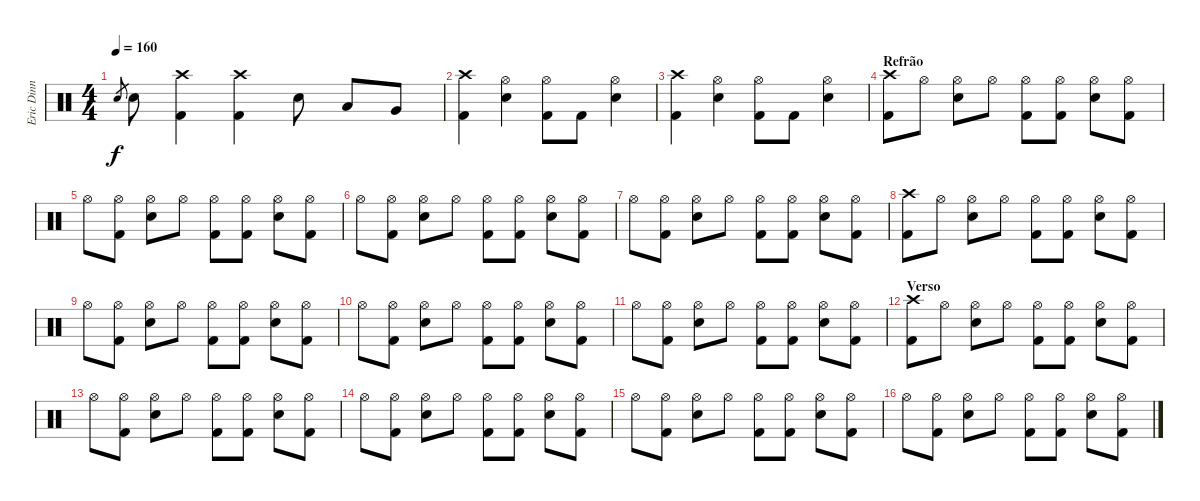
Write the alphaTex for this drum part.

\track ("Eric Dinn" "Eric Dinn") {instrument percussion}
\staff {score}
\articulation defaults
\ts (4 4)
\tempo 160
\clef neutral
\ks c "Snare (hit) 2".8{gr dy f} "Snare (hit) 2".8
("Crash high (hit)" "Kick (hit) 2").4 ("Crash high (hit)" "Kick (hit) 2").4 "Snare (hit) 2".8 "Low Tom (hit)".8 "Very Low Tom (hit)".8 |
("Crash high (hit)" "Kick (hit) 2").4 ("Hi-Hat (open)" "Snare (hit) 2").4 ("Hi-Hat (open)" "Kick (hit) 2").8 "Kick (hit) 2".8 ("Hi-Hat (open)" "Snare (hit) 2").4 |
("Crash high (hit)" "Kick (hit) 2").4 ("Hi-Hat (open)" "Snare (hit) 2").4 ("Hi-Hat (open)" "Kick (hit) 2").8 "Kick (hit) 2".8 ("Hi-Hat (open)" "Snare (hit) 2").4 |
\section ("" "Refrão")
("Crash high (hit)" "Kick (hit) 2").8 "Hi-Hat (open)".8 ("Hi-Hat (open)" "Snare (hit) 2").8 "Hi-Hat (open)".8 ("Hi-Hat (open)" "Kick (hit) 2").8 ("Hi-Hat (open)" "Kick (hit) 2").8 ("Hi-Hat (open)" "Snare (hit) 2").8 ("Hi-Hat (open)" "Kick (hit) 2").8 |
"Hi-Hat (open)".8 ("Hi-Hat (open)" "Kick (hit) 2").8 ("Hi-Hat (open)" "Snare (hit) 2").8 "Hi-Hat (open)".8 ("Hi-Hat (open)" "Kick (hit) 2").8 ("Hi-Hat (open)" "Kick (hit) 2").8 ("Hi-Hat (open)" "Snare (hit) 2").8 ("Hi-Hat (open)" "Kick (hit) 2").8 |
"Hi-Hat (open)".8 ("Hi-Hat (open)" "Kick (hit) 2").8 ("Hi-Hat (open)" "Snare (hit) 2").8 "Hi-Hat (open)".8 ("Hi-Hat (open)" "Kick (hit) 2").8 ("Hi-Hat (open)" "Kick (hit) 2").8 ("Hi-Hat (open)" "Snare (hit) 2").8 ("Hi-Hat (open)" "Kick (hit) 2").8 |
"Hi-Hat (open)".8 ("Hi-Hat (open)" "Kick (hit) 2").8 ("Hi-Hat (open)" "Snare (hit) 2").8 "Hi-Hat (open)".8 ("Hi-Hat (open)" "Kick (hit) 2").8 ("Hi-Hat (open)" "Kick (hit) 2").8 ("Hi-Hat (open)" "Snare (hit) 2").8 ("Hi-Hat (open)" "Kick (hit) 2").8 |
("Crash high (hit)" "Kick (hit) 2").8 "Hi-Hat (open)".8 ("Hi-Hat (open)" "Snare (hit) 2").8 "Hi-Hat (open)".8 ("Hi-Hat (open)" "Kick (hit) 2").8 ("Hi-Hat (open)" "Kick (hit) 2").8 ("Hi-Hat (open)" "Snare (hit) 2").8 ("Hi-Hat (open)" "Kick (hit) 2").8 |
"Hi-Hat (open)".8 ("Hi-Hat (open)" "Kick (hit) 2").8 ("Hi-Hat (open)" "Snare (hit) 2").8 "Hi-Hat (open)".8 ("Hi-Hat (open)" "Kick (hit) 2").8 ("Hi-Hat (open)" "Kick (hit) 2").8 ("Hi-Hat (open)" "Snare (hit) 2").8 ("Hi-Hat (open)" "Kick (hit) 2").8 |
"Hi-Hat (open)".8 ("Hi-Hat (open)" "Kick (hit) 2").8 ("Hi-Hat (open)" "Snare (hit) 2").8 "Hi-Hat (open)".8 ("Hi-Hat (open)" "Kick (hit) 2").8 ("Hi-Hat (open)" "Kick (hit) 2").8 ("Hi-Hat (open)" "Snare (hit) 2").8 ("Hi-Hat (open)" "Kick (hit) 2").8 |
"Hi-Hat (open)".8 ("Hi-Hat (open)" "Kick (hit) 2").8 ("Hi-Hat (open)" "Snare (hit) 2").8 "Hi-Hat (open)".8 ("Hi-Hat (open)" "Kick (hit) 2").8 ("Hi-Hat (open)" "Kick (hit) 2").8 ("Hi-Hat (open)" "Snare (hit) 2").8 ("Hi-Hat (open)" "Kick (hit) 2").8 |
\section ("" "Verso")
("Crash high (hit)" "Kick (hit) 2").8 "Hi-Hat (open)".8 ("Hi-Hat (open)" "Snare (hit) 2").8 "Hi-Hat (open)".8 ("Hi-Hat (open)" "Kick (hit) 2").8 ("Hi-Hat (open)" "Kick (hit) 2").8 ("Hi-Hat (open)" "Snare (hit) 2").8 ("Hi-Hat (open)" "Kick (hit) 2").8 |
"Hi-Hat (open)".8 ("Hi-Hat (open)" "Kick (hit) 2").8 ("Hi-Hat (open)" "Snare (hit) 2").8 "Hi-Hat (open)".8 ("Hi-Hat (open)" "Kick (hit) 2").8 ("Hi-Hat (open)" "Kick (hit) 2").8 ("Hi-Hat (open)" "Snare (hit) 2").8 ("Hi-Hat (open)" "Kick (hit) 2").8 |
"Hi-Hat (open)".8 ("Hi-Hat (open)" "Kick (hit) 2").8 ("Hi-Hat (open)" "Snare (hit) 2").8 "Hi-Hat (open)".8 ("Hi-Hat (open)" "Kick (hit) 2").8 ("Hi-Hat (open)" "Kick (hit) 2").8 ("Hi-Hat (open)" "Snare (hit) 2").8 ("Hi-Hat (open)" "Kick (hit) 2").8 |
"Hi-Hat (open)".8 ("Hi-Hat (open)" "Kick (hit) 2").8 ("Hi-Hat (open)" "Snare (hit) 2").8 "Hi-Hat (open)".8 ("Hi-Hat (open)" "Kick (hit) 2").8 ("Hi-Hat (open)" "Kick (hit) 2").8 ("Hi-Hat (open)" "Snare (hit) 2").8 ("Hi-Hat (open)" "Kick (hit) 2").8 |
"Hi-Hat (open)".8 ("Hi-Hat (open)" "Kick (hit) 2").8 ("Hi-Hat (open)" "Snare (hit) 2").8 "Hi-Hat (open)".8 ("Hi-Hat (open)" "Kick (hit) 2").8 ("Hi-Hat (open)" "Kick (hit) 2").8 ("Hi-Hat (open)" "Snare (hit) 2").8 ("Hi-Hat (open)" "Kick (hit) 2").8
